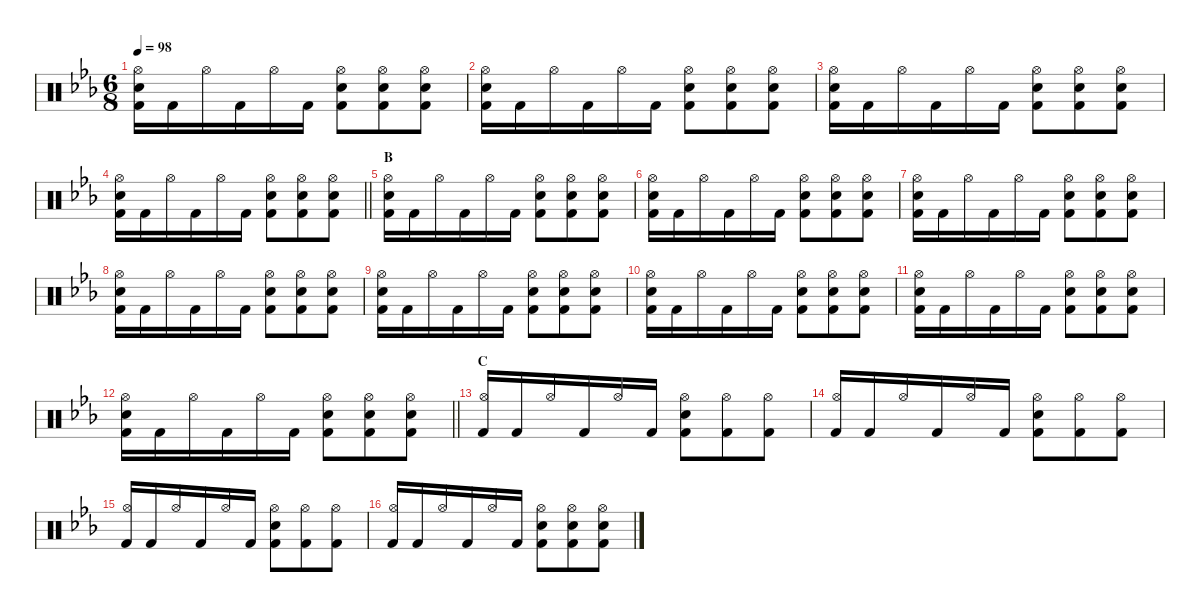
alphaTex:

\defaultSystemsLayout 4
\hideDynamics
\bracketExtendMode nobrackets
\singleTrackTrackNamePolicy hidden
\multiTrackTrackNamePolicy hidden
\firstSystemTrackNameMode fullname
\firstSystemTrackNameOrientation horizontal
\otherSystemsTrackNameOrientation horizontal
\track ("Gene Hogland" "drm.") {instrument percussion}
\staff {score}
\articulation defaults
\ts (6 8)
\tempo 98
\clef neutral
\ks eb
("Hi-Hat (open)"{acc forcenatural} "Snare (hit) 2"{acc forcenatural} "Kick (hit) 2"{acc forcenatural}).16{dy f beam Down} "Kick (hit) 2"{acc forcenatural}.16{beam Down} "Hi-Hat (open)"{acc forcenatural}.16{beam Down} "Kick (hit) 2"{acc forcenatural}.16{beam Down} "Hi-Hat (open)"{acc forcenatural}.16{beam Down} "Kick (hit) 2"{acc forcenatural}.16{beam Down} ("Hi-Hat (open)"{acc forcenatural} "Snare (hit) 2"{acc forcenatural} "Kick (hit) 2"{acc forcenatural}).8{beam Down} ("Hi-Hat (open)"{acc forcenatural} "Snare (hit) 2"{acc forcenatural} "Kick (hit) 2"{acc forcenatural}).8{beam Down} ("Hi-Hat (open)"{acc forcenatural} "Snare (hit) 2"{acc forcenatural} "Kick (hit) 2"{acc forcenatural}).8{beam Down} |
("Hi-Hat (open)"{acc forcenatural} "Snare (hit) 2"{acc forcenatural} "Kick (hit) 2"{acc forcenatural}).16{beam Down} "Kick (hit) 2"{acc forcenatural}.16{beam Down} "Hi-Hat (open)"{acc forcenatural}.16{beam Down} "Kick (hit) 2"{acc forcenatural}.16{beam Down} "Hi-Hat (open)"{acc forcenatural}.16{beam Down} "Kick (hit) 2"{acc forcenatural}.16{beam Down} ("Hi-Hat (open)"{acc forcenatural} "Snare (hit) 2"{acc forcenatural} "Kick (hit) 2"{acc forcenatural}).8{beam Down} ("Hi-Hat (open)"{acc forcenatural} "Snare (hit) 2"{acc forcenatural} "Kick (hit) 2"{acc forcenatural}).8{beam Down} ("Hi-Hat (open)"{acc forcenatural} "Snare (hit) 2"{acc forcenatural} "Kick (hit) 2"{acc forcenatural}).8{beam Down} |
("Hi-Hat (open)"{acc forcenatural} "Snare (hit) 2"{acc forcenatural} "Kick (hit) 2"{acc forcenatural}).16{beam Down} "Kick (hit) 2"{acc forcenatural}.16{beam Down} "Hi-Hat (open)"{acc forcenatural}.16{beam Down} "Kick (hit) 2"{acc forcenatural}.16{beam Down} "Hi-Hat (open)"{acc forcenatural}.16{beam Down} "Kick (hit) 2"{acc forcenatural}.16{beam Down} ("Hi-Hat (open)"{acc forcenatural} "Snare (hit) 2"{acc forcenatural} "Kick (hit) 2"{acc forcenatural}).8{beam Down} ("Hi-Hat (open)"{acc forcenatural} "Snare (hit) 2"{acc forcenatural} "Kick (hit) 2"{acc forcenatural}).8{beam Down} ("Hi-Hat (open)"{acc forcenatural} "Snare (hit) 2"{acc forcenatural} "Kick (hit) 2"{acc forcenatural}).8{beam Down} |
\barLineRight lightlight
("Hi-Hat (open)"{acc forcenatural} "Snare (hit) 2"{acc forcenatural} "Kick (hit) 2"{acc forcenatural}).16{beam Down} "Kick (hit) 2"{acc forcenatural}.16{beam Down} "Hi-Hat (open)"{acc forcenatural}.16{beam Down} "Kick (hit) 2"{acc forcenatural}.16{beam Down} "Hi-Hat (open)"{acc forcenatural}.16{beam Down} "Kick (hit) 2"{acc forcenatural}.16{beam Down} ("Hi-Hat (open)"{acc forcenatural} "Snare (hit) 2"{acc forcenatural} "Kick (hit) 2"{acc forcenatural}).8{beam Down} ("Hi-Hat (open)"{acc forcenatural} "Snare (hit) 2"{acc forcenatural} "Kick (hit) 2"{acc forcenatural}).8{beam Down} ("Hi-Hat (open)"{acc forcenatural} "Snare (hit) 2"{acc forcenatural} "Kick (hit) 2"{acc forcenatural}).8{beam Down} |
\section ("" "B")
("Hi-Hat (open)"{acc forcenatural} "Snare (hit) 2"{acc forcenatural} "Kick (hit) 2"{acc forcenatural}).16{beam Down} "Kick (hit) 2"{acc forcenatural}.16{beam Down} "Hi-Hat (open)"{acc forcenatural}.16{beam Down} "Kick (hit) 2"{acc forcenatural}.16{beam Down} "Hi-Hat (open)"{acc forcenatural}.16{beam Down} "Kick (hit) 2"{acc forcenatural}.16{beam Down} ("Hi-Hat (open)"{acc forcenatural} "Snare (hit) 2"{acc forcenatural} "Kick (hit) 2"{acc forcenatural}).8{beam Down} ("Hi-Hat (open)"{acc forcenatural} "Snare (hit) 2"{acc forcenatural} "Kick (hit) 2"{acc forcenatural}).8{beam Down} ("Hi-Hat (open)"{acc forcenatural} "Snare (hit) 2"{acc forcenatural} "Kick (hit) 2"{acc forcenatural}).8{beam Down} |
("Hi-Hat (open)"{acc forcenatural} "Snare (hit) 2"{acc forcenatural} "Kick (hit) 2"{acc forcenatural}).16{beam Down} "Kick (hit) 2"{acc forcenatural}.16{beam Down} "Hi-Hat (open)"{acc forcenatural}.16{beam Down} "Kick (hit) 2"{acc forcenatural}.16{beam Down} "Hi-Hat (open)"{acc forcenatural}.16{beam Down} "Kick (hit) 2"{acc forcenatural}.16{beam Down} ("Hi-Hat (open)"{acc forcenatural} "Snare (hit) 2"{acc forcenatural} "Kick (hit) 2"{acc forcenatural}).8{beam Down} ("Hi-Hat (open)"{acc forcenatural} "Snare (hit) 2"{acc forcenatural} "Kick (hit) 2"{acc forcenatural}).8{beam Down} ("Hi-Hat (open)"{acc forcenatural} "Snare (hit) 2"{acc forcenatural} "Kick (hit) 2"{acc forcenatural}).8{beam Down} |
("Hi-Hat (open)"{acc forcenatural} "Snare (hit) 2"{acc forcenatural} "Kick (hit) 2"{acc forcenatural}).16{beam Down} "Kick (hit) 2"{acc forcenatural}.16{beam Down} "Hi-Hat (open)"{acc forcenatural}.16{beam Down} "Kick (hit) 2"{acc forcenatural}.16{beam Down} "Hi-Hat (open)"{acc forcenatural}.16{beam Down} "Kick (hit) 2"{acc forcenatural}.16{beam Down} ("Hi-Hat (open)"{acc forcenatural} "Snare (hit) 2"{acc forcenatural} "Kick (hit) 2"{acc forcenatural}).8{beam Down} ("Hi-Hat (open)"{acc forcenatural} "Snare (hit) 2"{acc forcenatural} "Kick (hit) 2"{acc forcenatural}).8{beam Down} ("Hi-Hat (open)"{acc forcenatural} "Snare (hit) 2"{acc forcenatural} "Kick (hit) 2"{acc forcenatural}).8{beam Down} |
("Hi-Hat (open)"{acc forcenatural} "Snare (hit) 2"{acc forcenatural} "Kick (hit) 2"{acc forcenatural}).16{beam Down} "Kick (hit) 2"{acc forcenatural}.16{beam Down} "Hi-Hat (open)"{acc forcenatural}.16{beam Down} "Kick (hit) 2"{acc forcenatural}.16{beam Down} "Hi-Hat (open)"{acc forcenatural}.16{beam Down} "Kick (hit) 2"{acc forcenatural}.16{beam Down} ("Hi-Hat (open)"{acc forcenatural} "Snare (hit) 2"{acc forcenatural} "Kick (hit) 2"{acc forcenatural}).8{beam Down} ("Hi-Hat (open)"{acc forcenatural} "Snare (hit) 2"{acc forcenatural} "Kick (hit) 2"{acc forcenatural}).8{beam Down} ("Hi-Hat (open)"{acc forcenatural} "Snare (hit) 2"{acc forcenatural} "Kick (hit) 2"{acc forcenatural}).8{beam Down} |
("Hi-Hat (open)"{acc forcenatural} "Snare (hit) 2"{acc forcenatural} "Kick (hit) 2"{acc forcenatural}).16{beam Down} "Kick (hit) 2"{acc forcenatural}.16{beam Down} "Hi-Hat (open)"{acc forcenatural}.16{beam Down} "Kick (hit) 2"{acc forcenatural}.16{beam Down} "Hi-Hat (open)"{acc forcenatural}.16{beam Down} "Kick (hit) 2"{acc forcenatural}.16{beam Down} ("Hi-Hat (open)"{acc forcenatural} "Snare (hit) 2"{acc forcenatural} "Kick (hit) 2"{acc forcenatural}).8{beam Down} ("Hi-Hat (open)"{acc forcenatural} "Snare (hit) 2"{acc forcenatural} "Kick (hit) 2"{acc forcenatural}).8{beam Down} ("Hi-Hat (open)"{acc forcenatural} "Snare (hit) 2"{acc forcenatural} "Kick (hit) 2"{acc forcenatural}).8{beam Down} |
("Hi-Hat (open)"{acc forcenatural} "Snare (hit) 2"{acc forcenatural} "Kick (hit) 2"{acc forcenatural}).16{beam Down} "Kick (hit) 2"{acc forcenatural}.16{beam Down} "Hi-Hat (open)"{acc forcenatural}.16{beam Down} "Kick (hit) 2"{acc forcenatural}.16{beam Down} "Hi-Hat (open)"{acc forcenatural}.16{beam Down} "Kick (hit) 2"{acc forcenatural}.16{beam Down} ("Hi-Hat (open)"{acc forcenatural} "Snare (hit) 2"{acc forcenatural} "Kick (hit) 2"{acc forcenatural}).8{beam Down} ("Hi-Hat (open)"{acc forcenatural} "Snare (hit) 2"{acc forcenatural} "Kick (hit) 2"{acc forcenatural}).8{beam Down} ("Hi-Hat (open)"{acc forcenatural} "Snare (hit) 2"{acc forcenatural} "Kick (hit) 2"{acc forcenatural}).8{beam Down} |
("Hi-Hat (open)"{acc forcenatural} "Snare (hit) 2"{acc forcenatural} "Kick (hit) 2"{acc forcenatural}).16{beam Down} "Kick (hit) 2"{acc forcenatural}.16{beam Down} "Hi-Hat (open)"{acc forcenatural}.16{beam Down} "Kick (hit) 2"{acc forcenatural}.16{beam Down} "Hi-Hat (open)"{acc forcenatural}.16{beam Down} "Kick (hit) 2"{acc forcenatural}.16{beam Down} ("Hi-Hat (open)"{acc forcenatural} "Snare (hit) 2"{acc forcenatural} "Kick (hit) 2"{acc forcenatural}).8{beam Down} ("Hi-Hat (open)"{acc forcenatural} "Snare (hit) 2"{acc forcenatural} "Kick (hit) 2"{acc forcenatural}).8{beam Down} ("Hi-Hat (open)"{acc forcenatural} "Snare (hit) 2"{acc forcenatural} "Kick (hit) 2"{acc forcenatural}).8{beam Down} |
\barLineRight lightlight
("Hi-Hat (open)"{acc forcenatural} "Snare (hit) 2"{acc forcenatural} "Kick (hit) 2"{acc forcenatural}).16{beam Down} "Kick (hit) 2"{acc forcenatural}.16{beam Down} "Hi-Hat (open)"{acc forcenatural}.16{beam Down} "Kick (hit) 2"{acc forcenatural}.16{beam Down} "Hi-Hat (open)"{acc forcenatural}.16{beam Down} "Kick (hit) 2"{acc forcenatural}.16{beam Down} ("Hi-Hat (open)"{acc forcenatural} "Snare (hit) 2"{acc forcenatural} "Kick (hit) 2"{acc forcenatural}).8{beam Down} ("Hi-Hat (open)"{acc forcenatural} "Snare (hit) 2"{acc forcenatural} "Kick (hit) 2"{acc forcenatural}).8{beam Down} ("Hi-Hat (open)"{acc forcenatural} "Snare (hit) 2"{acc forcenatural} "Kick (hit) 2"{acc forcenatural}).8{beam Down} |
\section ("" "C")
("Hi-Hat (open)"{acc forcenatural} "Kick (hit) 2"{acc forcenatural}).16{beam Up} "Kick (hit) 2"{acc forcenatural}.16{beam Up} "Hi-Hat (open)"{acc forcenatural}.16{beam Up} "Kick (hit) 2"{acc forcenatural}.16{beam Up} "Hi-Hat (open)"{acc forcenatural}.16{beam Down} "Kick (hit) 2"{acc forcenatural}.16{beam Down} ("Hi-Hat (open)"{acc forcenatural} "Snare (hit) 2"{acc forcenatural} "Kick (hit) 2"{acc forcenatural}).8{beam Down} ("Hi-Hat (open)"{acc forcenatural} "Kick (hit) 2"{acc forcenatural}).8{beam Down} ("Hi-Hat (open)"{acc forcenatural} "Kick (hit) 2"{acc forcenatural}).8{beam Down} |
("Hi-Hat (open)"{acc forcenatural} "Kick (hit) 2"{acc forcenatural}).16{beam Up} "Kick (hit) 2"{acc forcenatural}.16{beam Up} "Hi-Hat (open)"{acc forcenatural}.16{beam Up} "Kick (hit) 2"{acc forcenatural}.16{beam Up} "Hi-Hat (open)"{acc forcenatural}.16{beam Down} "Kick (hit) 2"{acc forcenatural}.16{beam Down} ("Hi-Hat (open)"{acc forcenatural} "Snare (hit) 2"{acc forcenatural} "Kick (hit) 2"{acc forcenatural}).8{beam Down} ("Hi-Hat (open)"{acc forcenatural} "Kick (hit) 2"{acc forcenatural}).8{beam Down} ("Hi-Hat (open)"{acc forcenatural} "Kick (hit) 2"{acc forcenatural}).8{beam Down} |
("Hi-Hat (open)"{acc forcenatural} "Kick (hit) 2"{acc forcenatural}).16{beam Up} "Kick (hit) 2"{acc forcenatural}.16{beam Up} "Hi-Hat (open)"{acc forcenatural}.16{beam Up} "Kick (hit) 2"{acc forcenatural}.16{beam Up} "Hi-Hat (open)"{acc forcenatural}.16{beam Down} "Kick (hit) 2"{acc forcenatural}.16{beam Down} ("Hi-Hat (open)"{acc forcenatural} "Snare (hit) 2"{acc forcenatural} "Kick (hit) 2"{acc forcenatural}).8{beam Down} ("Hi-Hat (open)"{acc forcenatural} "Kick (hit) 2"{acc forcenatural}).8{beam Down} ("Hi-Hat (open)"{acc forcenatural} "Kick (hit) 2"{acc forcenatural}).8{beam Down} |
("Hi-Hat (open)"{acc forcenatural} "Kick (hit) 2"{acc forcenatural}).16{beam Up} "Kick (hit) 2"{acc forcenatural}.16{beam Up} "Hi-Hat (open)"{acc forcenatural}.16{beam Up} "Kick (hit) 2"{acc forcenatural}.16{beam Up} "Hi-Hat (open)"{acc forcenatural}.16{beam Down} "Kick (hit) 2"{acc forcenatural}.16{beam Down} ("Hi-Hat (open)"{acc forcenatural} "Snare (hit) 2"{acc forcenatural} "Kick (hit) 2"{acc forcenatural}).8{beam Down} ("Hi-Hat (open)"{acc forcenatural} "Snare (hit) 2"{acc forcenatural} "Kick (hit) 2"{acc forcenatural}).8{beam Down} ("Hi-Hat (open)"{acc forcenatural} "Snare (hit) 2"{acc forcenatural} "Kick (hit) 2"{acc forcenatural}).8{beam Down}
